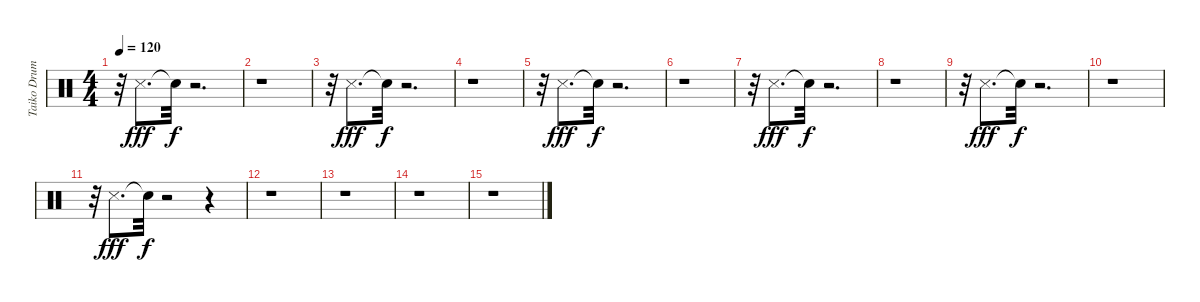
\track ("Taiko Drum" "Taiko Drum") {instrument percussion}
\staff {score}
\articulation defaults
\ts (4 4)
\tempo 120
\clef neutral
\ks c
r.32{dy f} "Metronome (hit)".8{d dy fff} "Snare (hit)"{t}.32{dy f} r.2{d} |
r.1 |
r.32 "Metronome (hit)".8{d dy fff} "Snare (hit)"{t}.32{dy f} r.2{d} |
r.1 |
r.32 "Metronome (hit)".8{d dy fff} "Snare (hit)"{t}.32{dy f} r.2{d} |
r.1 |
r.32 "Metronome (hit)".8{d dy fff} "Snare (hit)"{t}.32{dy f} r.2{d} |
r.1 |
r.32 "Metronome (hit)".8{d dy fff} "Snare (hit)"{t}.32{dy f} r.2{d} |
r.1 |
r.32 "Metronome (hit)".8{d dy fff} "Snare (hit)"{t}.32{dy f} r.2 r.4 |
r.1 |
r.1 |
r.1 |
r.1
